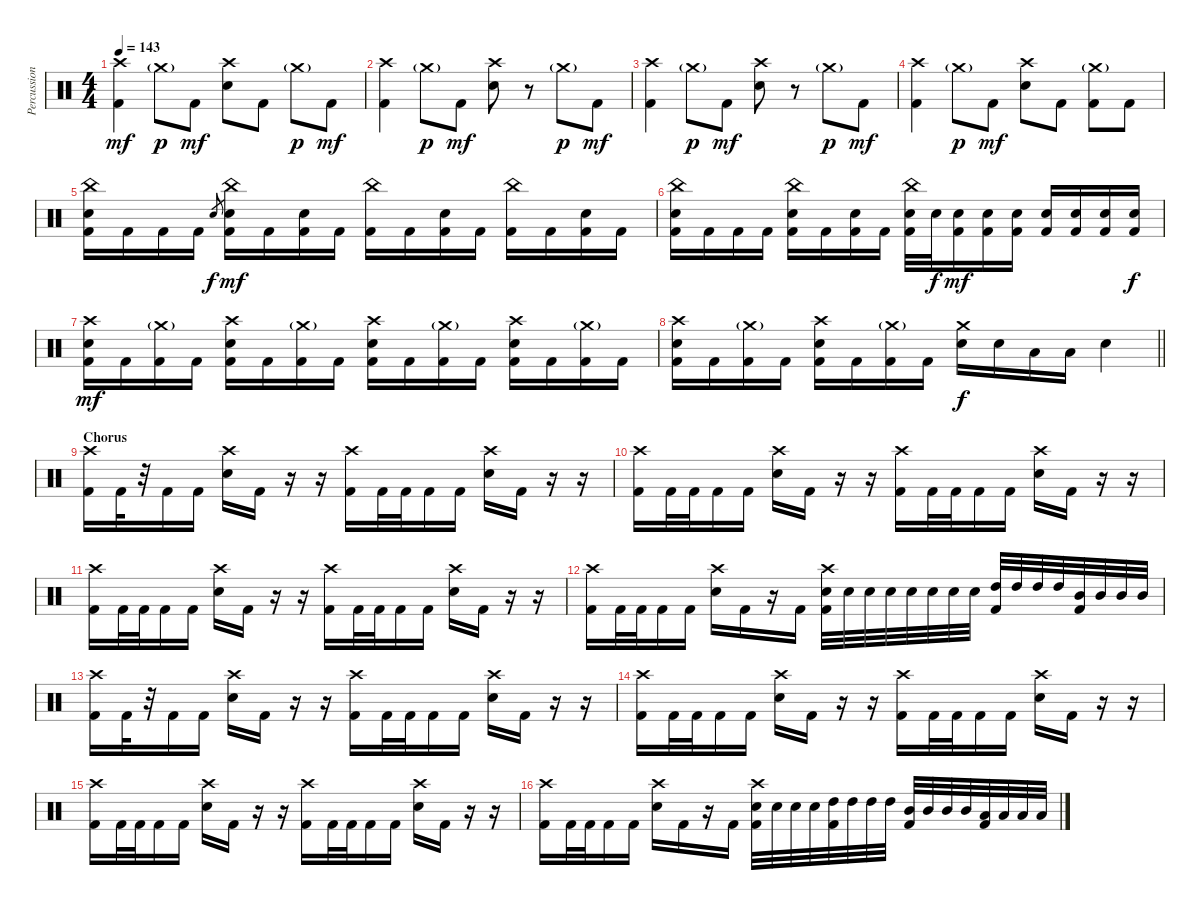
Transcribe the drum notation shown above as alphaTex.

\track ("Percussion" "Percussion") {instrument percussion}
\staff {score}
\articulation defaults
\ts (4 4)
\tempo 143
\clef neutral
\ks c
("Crash high (hit)" "Kick (hit) 2").4{dy mf} "Crash medium (hit)"{g}.8{dy p} "Kick (hit) 2".8{dy mf} ("Crash high (hit)" "Electric Snare (hit)").8 "Kick (hit) 2".8 "Crash medium (hit)"{g}.8{dy p} "Kick (hit) 2".8{dy mf} |
("Crash high (hit)" "Kick (hit) 2").4 "Crash medium (hit)"{g}.8{dy p} "Kick (hit) 2".8{dy mf} ("Crash high (hit)" "Electric Snare (hit)").8 r.8 "Crash medium (hit)"{g}.8{dy p} "Kick (hit) 2".8{dy mf} |
("Crash high (hit)" "Kick (hit) 2").4 "Crash medium (hit)"{g}.8{dy p} "Kick (hit) 2".8{dy mf} ("Crash high (hit)" "Electric Snare (hit)").8 r.8 "Crash medium (hit)"{g}.8{dy p} "Kick (hit) 2".8{dy mf} |
("Crash high (hit)" "Kick (hit) 2").4 "Crash medium (hit)"{g}.8{dy p} "Kick (hit) 2".8{dy mf} ("Crash high (hit)" "Electric Snare (hit)").8 "Kick (hit) 2".8 ("Crash medium (hit)"{g} "Kick (hit) 2").8 "Kick (hit) 2".8 |
("China (hit)" "Electric Snare (hit)" "Kick (hit) 2").16 "Kick (hit) 2".16 "Kick (hit) 2".16 "Kick (hit) 2".16 "Electric Snare (hit)".8{gr dy f} ("China (hit)" "Electric Snare (hit)" "Kick (hit) 2").16{dy mf} "Kick (hit) 2".16 ("Electric Snare (hit)" "Kick (hit) 2").16 "Kick (hit) 2".16 ("China (hit)" "Kick (hit) 2").16 "Kick (hit) 2".16 ("Electric Snare (hit)" "Kick (hit) 2").16 "Kick (hit) 2".16 ("China (hit)" "Kick (hit) 2").16 "Kick (hit) 2".16 ("Electric Snare (hit)" "Kick (hit) 2").16 "Kick (hit) 2".16 |
("China (hit)" "Electric Snare (hit)" "Kick (hit) 2").16 "Kick (hit) 2".16 "Kick (hit) 2".16 "Kick (hit) 2".16 ("China (hit)" "Electric Snare (hit)" "Kick (hit) 2").16 "Kick (hit) 2".16 ("Electric Snare (hit)" "Kick (hit) 2").16 "Kick (hit) 2".16 ("China (hit)" "Electric Snare (hit)" "Kick (hit) 2").32 "Electric Snare (hit)".32{dy f} ("Electric Snare (hit)" "Kick (hit) 2").16{dy mf} ("Electric Snare (hit)" "Kick (hit) 2").16 ("Electric Snare (hit)" "Kick (hit) 2").16 ("Electric Snare (hit)" "Kick (hit) 2").16 ("Electric Snare (hit)" "Kick (hit) 2").16 ("Electric Snare (hit)" "Kick (hit) 2").16 ("Electric Snare (hit)" "Kick (hit) 2").16{dy f} |
("Crash high (hit)" "Electric Snare (hit)" "Kick (hit) 2").16{dy mf} "Kick (hit) 2".16 ("Crash medium (hit)"{g} "Kick (hit) 2").16 "Kick (hit) 2".16 ("Crash high (hit)" "Electric Snare (hit)" "Kick (hit) 2").16 "Kick (hit) 2".16 ("Crash medium (hit)"{g} "Kick (hit) 2").16 "Kick (hit) 2".16 ("Crash high (hit)" "Electric Snare (hit)" "Kick (hit) 2").16 "Kick (hit) 2".16 ("Crash medium (hit)"{g} "Kick (hit) 2").16 "Kick (hit) 2".16 ("Crash high (hit)" "Electric Snare (hit)" "Kick (hit) 2").16 "Kick (hit) 2".16 ("Crash medium (hit)"{g} "Kick (hit) 2").16 "Kick (hit) 2".16 |
\barLineRight lightlight
("Crash high (hit)" "Electric Snare (hit)" "Kick (hit) 2").16 "Kick (hit) 2".16 ("Crash medium (hit)"{g} "Kick (hit) 2").16 "Kick (hit) 2".16 ("Crash high (hit)" "Electric Snare (hit)" "Kick (hit) 2").16 "Kick (hit) 2".16 ("Crash medium (hit)"{g} "Kick (hit) 2").16 "Kick (hit) 2".16 ("Crash medium (hit)" "Electric Snare (hit)").16{dy f} "Electric Snare (hit)".16 "Low Tom (hit)".16 "Low Tom (hit)".16 "Electric Snare (hit)".4 |
\section ("" "Chorus")
("Crash high (hit)" "Kick (hit) 2").16 "Kick (hit) 2".32 r.32 "Kick (hit) 2".16 "Kick (hit) 2".16 ("Crash high (hit)" "Electric Snare (hit)").16 "Kick (hit) 2".16 r.16 r.16 ("Crash high (hit)" "Kick (hit) 2").16 "Kick (hit) 2".32 "Kick (hit) 2".32 "Kick (hit) 2".16 "Kick (hit) 2".16 ("Crash high (hit)" "Electric Snare (hit)").16 "Kick (hit) 2".16 r.16 r.16 |
("Crash high (hit)" "Kick (hit) 2").16 "Kick (hit) 2".32 "Kick (hit) 2".32 "Kick (hit) 2".16 "Kick (hit) 2".16 ("Crash high (hit)" "Electric Snare (hit)").16 "Kick (hit) 2".16 r.16 r.16 ("Crash high (hit)" "Kick (hit) 2").16 "Kick (hit) 2".32 "Kick (hit) 2".32 "Kick (hit) 2".16 "Kick (hit) 2".16 ("Crash high (hit)" "Electric Snare (hit)").16 "Kick (hit) 2".16 r.16 r.16 |
("Crash high (hit)" "Kick (hit) 2").16 "Kick (hit) 2".32 "Kick (hit) 2".32 "Kick (hit) 2".16 "Kick (hit) 2".16 ("Crash high (hit)" "Electric Snare (hit)").16 "Kick (hit) 2".16 r.16 r.16 ("Crash high (hit)" "Kick (hit) 2").16 "Kick (hit) 2".32 "Kick (hit) 2".32 "Kick (hit) 2".16 "Kick (hit) 2".16 ("Crash high (hit)" "Electric Snare (hit)").16 "Kick (hit) 2".16 r.16 r.16 |
("Crash high (hit)" "Kick (hit) 2").16 "Kick (hit) 2".32 "Kick (hit) 2".32 "Kick (hit) 2".16 "Kick (hit) 2".16 ("Crash high (hit)" "Electric Snare (hit)").16 "Kick (hit) 2".16 r.16 "Kick (hit) 2".16 ("Crash high (hit)" "Electric Snare (hit)" "Kick (hit) 2").32 "Electric Snare (hit)".32 "Electric Snare (hit)".32 "Electric Snare (hit)".32 "Electric Snare (hit)".32 "Electric Snare (hit)".32 "Electric Snare (hit)".32 "Electric Snare (hit)".32 ("High Tom (hit)" "Kick (hit) 2").32 "High Tom (hit)".32 "High Tom (hit)".32 "High Tom (hit)".32 ("Mid Tom (hit)" "Kick (hit) 2").32 "Mid Tom (hit)".32 "Mid Tom (hit)".32 "Mid Tom (hit)".32 |
("Crash high (hit)" "Kick (hit) 2").16 "Kick (hit) 2".32 r.32 "Kick (hit) 2".16 "Kick (hit) 2".16 ("Crash high (hit)" "Electric Snare (hit)").16 "Kick (hit) 2".16 r.16 r.16 ("Crash high (hit)" "Kick (hit) 2").16 "Kick (hit) 2".32 "Kick (hit) 2".32 "Kick (hit) 2".16 "Kick (hit) 2".16 ("Crash high (hit)" "Electric Snare (hit)").16 "Kick (hit) 2".16 r.16 r.16 |
("Crash high (hit)" "Kick (hit) 2").16 "Kick (hit) 2".32 "Kick (hit) 2".32 "Kick (hit) 2".16 "Kick (hit) 2".16 ("Crash high (hit)" "Electric Snare (hit)").16 "Kick (hit) 2".16 r.16 r.16 ("Crash high (hit)" "Kick (hit) 2").16 "Kick (hit) 2".32 "Kick (hit) 2".32 "Kick (hit) 2".16 "Kick (hit) 2".16 ("Crash high (hit)" "Electric Snare (hit)").16 "Kick (hit) 2".16 r.16 r.16 |
("Crash high (hit)" "Kick (hit) 2").16 "Kick (hit) 2".32 "Kick (hit) 2".32 "Kick (hit) 2".16 "Kick (hit) 2".16 ("Crash high (hit)" "Electric Snare (hit)").16 "Kick (hit) 2".16 r.16 r.16 ("Crash high (hit)" "Kick (hit) 2").16 "Kick (hit) 2".32 "Kick (hit) 2".32 "Kick (hit) 2".16 "Kick (hit) 2".16 ("Crash high (hit)" "Electric Snare (hit)").16 "Kick (hit) 2".16 r.16 r.16 |
("Crash high (hit)" "Kick (hit) 2").16 "Kick (hit) 2".32 "Kick (hit) 2".32 "Kick (hit) 2".16 "Kick (hit) 2".16 ("Crash high (hit)" "Electric Snare (hit)").16 "Kick (hit) 2".16 r.16 "Kick (hit) 2".16 ("Crash high (hit)" "Electric Snare (hit)" "Kick (hit) 2").32 "Electric Snare (hit)".32 "Electric Snare (hit)".32 "Electric Snare (hit)".32 ("High Tom (hit)" "Kick (hit) 2").32 "High Tom (hit)".32 "High Tom (hit)".32 "High Tom (hit)".32 ("Mid Tom (hit)" "Kick (hit) 2").32 "Mid Tom (hit)".32 "Mid Tom (hit)".32 "Mid Tom (hit)".32 ("Low Tom (hit)" "Kick (hit) 2").32 "Low Tom (hit)".32 "Low Tom (hit)".32 "Low Tom (hit)".32
